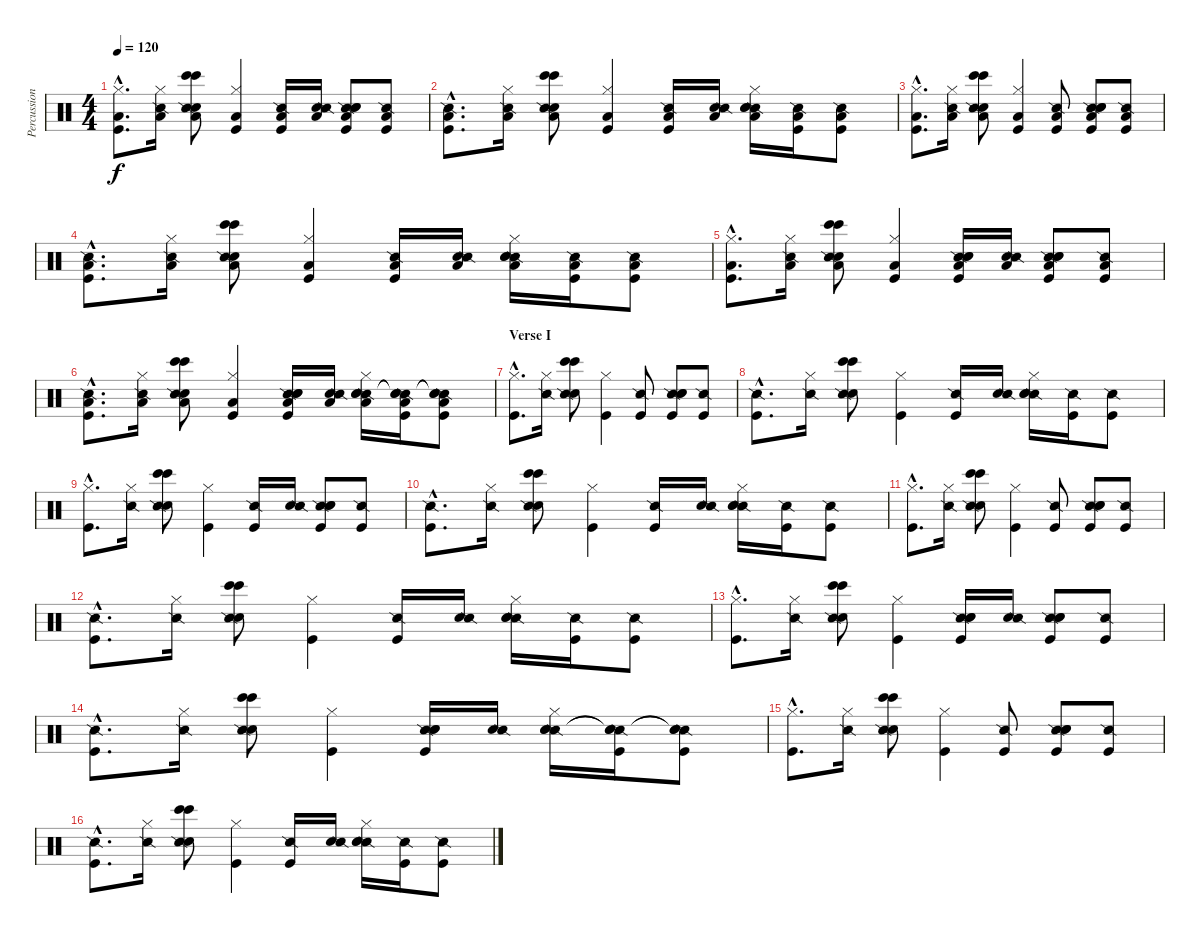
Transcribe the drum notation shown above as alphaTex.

\track ("Percussion" "Percussion") {instrument percussion}
\staff {score}
\articulation defaults
\ts (4 4)
\tempo 120
\clef neutral
\ks c
("Kick (hit)"{hac} "Hi-Hat (closed)"{hac} "Low Floor Tom (hit)"{hac}).8{d dy f} ("Hi-Hat (closed)" "Snare (side stick) 2" "Low Floor Tom (hit)").16 ("Snare (hit) 2" "Snare (side stick) 2" "Low Floor Tom (hit)" "Bongo High (hit)" "Bongo High (hit)").8 ("Kick (hit)" "Hi-Hat (closed)" "Low Floor Tom (hit)").4 ("Kick (hit)" "Snare (side stick) 2" "Low Floor Tom (hit)").16 ("Snare (hit) 2" "Snare (side stick) 2" "Low Floor Tom (hit)").16 ("Kick (hit)" "Snare (side stick) 2" "Low Floor Tom (hit)" "Electric Snare (hit)" "Electric Snare (hit)").8 ("Kick (hit)" "Snare (side stick) 2" "Low Floor Tom (hit)").8 |
("Kick (hit)"{hac} "Snare (side stick) 2"{hac} "Low Floor Tom (hit)"{hac}).8{d} ("Hi-Hat (closed)" "Snare (side stick) 2" "Low Floor Tom (hit)").16 ("Snare (hit) 2" "Snare (side stick) 2" "Low Floor Tom (hit)" "Bongo High (hit)" "Bongo High (hit)").8 ("Kick (hit)" "Hi-Hat (closed)" "Low Floor Tom (hit)").4 ("Kick (hit)" "Snare (side stick) 2" "Low Floor Tom (hit)").16 ("Snare (hit) 2" "Snare (side stick) 2" "Low Floor Tom (hit)").16 ("Hi-Hat (closed)" "Snare (side stick) 2" "Low Floor Tom (hit)" "Electric Snare (hit)" "Electric Snare (hit)").16 ("Kick (hit)" "Snare (side stick) 2" "Low Floor Tom (hit)").16 ("Kick (hit)" "Snare (side stick) 2" "Low Floor Tom (hit)").8 |
("Kick (hit)"{hac} "Hi-Hat (closed)"{hac} "Low Floor Tom (hit)"{hac}).8{d} ("Hi-Hat (closed)" "Snare (side stick) 2" "Low Floor Tom (hit)").16 ("Snare (hit) 2" "Snare (side stick) 2" "Low Floor Tom (hit)" "Bongo High (hit)" "Bongo High (hit)").8 ("Kick (hit)" "Hi-Hat (closed)" "Low Floor Tom (hit)").4 ("Kick (hit)" "Snare (side stick) 2" "Low Floor Tom (hit)").8 ("Kick (hit)" "Snare (side stick) 2" "Low Floor Tom (hit)" "Electric Snare (hit)" "Electric Snare (hit)").8 ("Kick (hit)" "Snare (side stick) 2" "Low Floor Tom (hit)").8 |
("Kick (hit)"{hac} "Snare (side stick) 2"{hac} "Low Floor Tom (hit)"{hac}).8{d} ("Hi-Hat (closed)" "Snare (side stick) 2" "Low Floor Tom (hit)").16 ("Snare (hit) 2" "Snare (side stick) 2" "Low Floor Tom (hit)" "Bongo High (hit)" "Bongo High (hit)").8 ("Kick (hit)" "Hi-Hat (closed)" "Low Floor Tom (hit)").4 ("Kick (hit)" "Snare (side stick) 2" "Low Floor Tom (hit)").16 ("Snare (hit) 2" "Snare (side stick) 2" "Low Floor Tom (hit)").16 ("Hi-Hat (closed)" "Snare (side stick) 2" "Low Floor Tom (hit)" "Electric Snare (hit)" "Electric Snare (hit)").16 ("Kick (hit)" "Snare (side stick) 2" "Low Floor Tom (hit)").16 ("Kick (hit)" "Snare (side stick) 2" "Low Floor Tom (hit)").8 |
("Kick (hit)"{hac} "Hi-Hat (closed)"{hac} "Low Floor Tom (hit)"{hac}).8{d} ("Hi-Hat (closed)" "Snare (side stick) 2" "Low Floor Tom (hit)").16 ("Snare (hit) 2" "Snare (side stick) 2" "Low Floor Tom (hit)" "Bongo High (hit)" "Bongo High (hit)").8 ("Kick (hit)" "Hi-Hat (closed)" "Low Floor Tom (hit)").4 ("Kick (hit)" "Snare (side stick) 2" "Low Floor Tom (hit)" "Electric Snare (hit)" "Electric Snare (hit)").16 ("Snare (hit) 2" "Snare (side stick) 2" "Low Floor Tom (hit)").16 ("Kick (hit)" "Snare (side stick) 2" "Low Floor Tom (hit)" "Electric Snare (hit)" "Electric Snare (hit)").8 ("Kick (hit)" "Snare (side stick) 2" "Low Floor Tom (hit)").8 |
("Kick (hit)"{hac} "Snare (side stick) 2"{hac} "Low Floor Tom (hit)"{hac}).8{d} ("Hi-Hat (closed)" "Snare (side stick) 2" "Low Floor Tom (hit)").16 ("Snare (hit) 2" "Snare (side stick) 2" "Low Floor Tom (hit)" "Bongo High (hit)" "Bongo High (hit)").8 ("Kick (hit)" "Hi-Hat (closed)" "Low Floor Tom (hit)").4 ("Kick (hit)" "Snare (side stick) 2" "Low Floor Tom (hit)" "Electric Snare (hit)" "Electric Snare (hit)").16 ("Snare (hit) 2" "Snare (side stick) 2" "Low Floor Tom (hit)").16 ("Hi-Hat (closed)" "Snare (side stick) 2" "Low Floor Tom (hit)" "Electric Snare (hit)" "Electric Snare (hit)").16 ("Kick (hit)" "Snare (side stick) 2" "Low Floor Tom (hit)" "Snare (hit)"{t} "Snare (hit)"{t}).16 ("Kick (hit)" "Snare (side stick) 2" "Low Floor Tom (hit)" "Snare (hit)"{t} "Snare (hit)"{t}).8 |
\section ("" "Verse I")
("Kick (hit)"{hac} "Hi-Hat (closed)"{hac}).8{d} ("Hi-Hat (closed)" "Snare (side stick) 2").16 ("Snare (hit) 2" "Snare (side stick) 2" "Bongo High (hit)" "Bongo High (hit)").8 ("Kick (hit)" "Hi-Hat (closed)").4 ("Kick (hit)" "Snare (side stick) 2").8 ("Kick (hit)" "Snare (side stick) 2" "Electric Snare (hit)" "Electric Snare (hit)").8 ("Kick (hit)" "Snare (side stick) 2").8 |
("Kick (hit)"{hac} "Snare (side stick) 2"{hac}).8{d} ("Hi-Hat (closed)" "Snare (side stick) 2").16 ("Snare (hit) 2" "Snare (side stick) 2" "Bongo High (hit)" "Bongo High (hit)").8 ("Kick (hit)" "Hi-Hat (closed)").4 ("Kick (hit)" "Snare (side stick) 2").16 ("Snare (hit) 2" "Snare (side stick) 2").16 ("Hi-Hat (closed)" "Snare (side stick) 2" "Electric Snare (hit)" "Electric Snare (hit)").16 ("Kick (hit)" "Snare (side stick) 2").16 ("Kick (hit)" "Snare (side stick) 2").8 |
("Kick (hit)"{hac} "Hi-Hat (closed)"{hac}).8{d} ("Hi-Hat (closed)" "Snare (side stick) 2").16 ("Snare (hit) 2" "Snare (side stick) 2" "Bongo High (hit)" "Bongo High (hit)").8 ("Kick (hit)" "Hi-Hat (closed)").4 ("Kick (hit)" "Snare (side stick) 2").16 ("Snare (hit) 2" "Snare (side stick) 2").16 ("Kick (hit)" "Snare (side stick) 2" "Electric Snare (hit)" "Electric Snare (hit)").8 ("Kick (hit)" "Snare (side stick) 2").8 |
("Kick (hit)"{hac} "Snare (side stick) 2"{hac}).8{d} ("Hi-Hat (closed)" "Snare (side stick) 2").16 ("Snare (hit) 2" "Snare (side stick) 2" "Bongo High (hit)" "Bongo High (hit)").8 ("Kick (hit)" "Hi-Hat (closed)").4 ("Kick (hit)" "Snare (side stick) 2").16 ("Snare (hit) 2" "Snare (side stick) 2").16 ("Hi-Hat (closed)" "Snare (side stick) 2" "Electric Snare (hit)" "Electric Snare (hit)").16 ("Kick (hit)" "Snare (side stick) 2").16 ("Kick (hit)" "Snare (side stick) 2").8 |
("Kick (hit)"{hac} "Hi-Hat (closed)"{hac}).8{d} ("Hi-Hat (closed)" "Snare (side stick) 2").16 ("Snare (hit) 2" "Snare (side stick) 2" "Bongo High (hit)" "Bongo High (hit)").8 ("Kick (hit)" "Hi-Hat (closed)").4 ("Kick (hit)" "Snare (side stick) 2").8 ("Kick (hit)" "Snare (side stick) 2" "Electric Snare (hit)" "Electric Snare (hit)").8 ("Kick (hit)" "Snare (side stick) 2").8 |
("Kick (hit)"{hac} "Snare (side stick) 2"{hac}).8{d} ("Hi-Hat (closed)" "Snare (side stick) 2").16 ("Snare (hit) 2" "Snare (side stick) 2" "Bongo High (hit)" "Bongo High (hit)").8 ("Kick (hit)" "Hi-Hat (closed)").4 ("Kick (hit)" "Snare (side stick) 2").16 ("Snare (hit) 2" "Snare (side stick) 2").16 ("Hi-Hat (closed)" "Snare (side stick) 2" "Electric Snare (hit)" "Electric Snare (hit)").16 ("Kick (hit)" "Snare (side stick) 2").16 ("Kick (hit)" "Snare (side stick) 2").8 |
("Kick (hit)"{hac} "Hi-Hat (closed)"{hac}).8{d} ("Hi-Hat (closed)" "Snare (side stick) 2").16 ("Snare (hit) 2" "Snare (side stick) 2" "Bongo High (hit)" "Bongo High (hit)").8 ("Kick (hit)" "Hi-Hat (closed)").4 ("Kick (hit)" "Snare (side stick) 2" "Electric Snare (hit)" "Electric Snare (hit)").16 ("Snare (hit) 2" "Snare (side stick) 2").16 ("Kick (hit)" "Snare (side stick) 2" "Electric Snare (hit)" "Electric Snare (hit)").8 ("Kick (hit)" "Snare (side stick) 2").8 |
("Kick (hit)"{hac} "Snare (side stick) 2"{hac}).8{d} ("Hi-Hat (closed)" "Snare (side stick) 2").16 ("Snare (hit) 2" "Snare (side stick) 2" "Bongo High (hit)" "Bongo High (hit)").8 ("Kick (hit)" "Hi-Hat (closed)").4 ("Kick (hit)" "Snare (side stick) 2" "Electric Snare (hit)" "Electric Snare (hit)").16 ("Snare (hit) 2" "Snare (side stick) 2").16 ("Hi-Hat (closed)" "Snare (side stick) 2" "Electric Snare (hit)" "Electric Snare (hit)").16 ("Kick (hit)" "Snare (side stick) 2" "Snare (hit)"{t} "Snare (hit)"{t}).16 ("Kick (hit)" "Snare (side stick) 2" "Snare (hit)"{t} "Snare (hit)"{t}).8 |
("Kick (hit)"{hac} "Hi-Hat (closed)"{hac}).8{d} ("Hi-Hat (closed)" "Snare (side stick) 2").16 ("Snare (hit) 2" "Snare (side stick) 2" "Bongo High (hit)" "Bongo High (hit)").8 ("Kick (hit)" "Hi-Hat (closed)").4 ("Kick (hit)" "Snare (side stick) 2").8 ("Kick (hit)" "Snare (side stick) 2" "Electric Snare (hit)" "Electric Snare (hit)").8 ("Kick (hit)" "Snare (side stick) 2").8 |
("Kick (hit)"{hac} "Snare (side stick) 2"{hac}).8{d} ("Hi-Hat (closed)" "Snare (side stick) 2").16 ("Snare (hit) 2" "Snare (side stick) 2" "Bongo High (hit)" "Bongo High (hit)").8 ("Kick (hit)" "Hi-Hat (closed)").4 ("Kick (hit)" "Snare (side stick) 2").16 ("Snare (hit) 2" "Snare (side stick) 2").16 ("Hi-Hat (closed)" "Snare (side stick) 2" "Electric Snare (hit)" "Electric Snare (hit)").16 ("Kick (hit)" "Snare (side stick) 2").16 ("Kick (hit)" "Snare (side stick) 2").8
